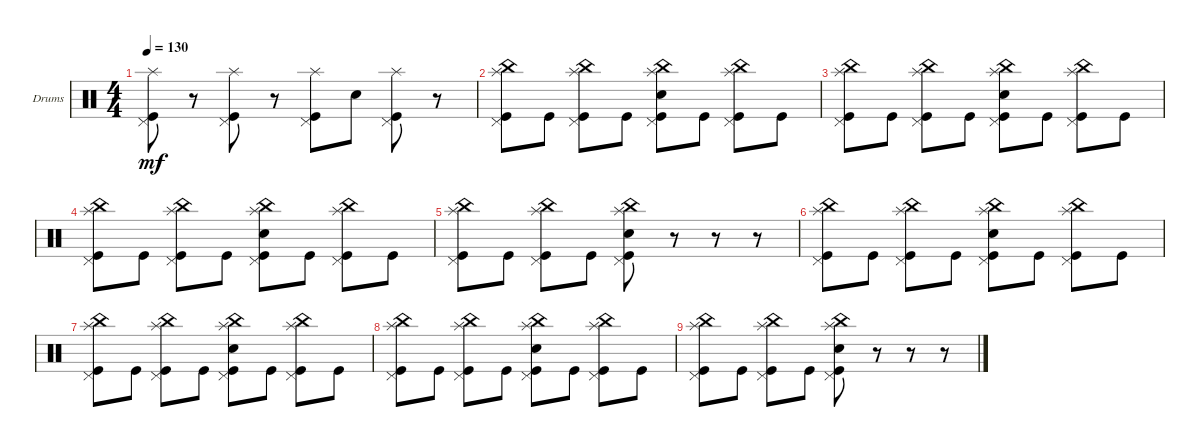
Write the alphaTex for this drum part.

\defaultSystemsLayout 4
\bracketExtendMode groupsimilarinstruments
\firstSystemTrackNameOrientation horizontal
\otherSystemsTrackNameOrientation horizontal
\track ("Drumkit" "Drums") {instrument percussion}
\staff {score}
\articulation defaults
\ts (4 4)
\tempo 130
\clef neutral
\scale
0.333333
\ks c
("Pedal Hi-Hat (hit)" "Kick (hit)" "Splash (hit)").8{dy mf} r.8 ("Pedal Hi-Hat (hit)" "Kick (hit)" "Splash (hit)").8 r.8 ("Pedal Hi-Hat (hit)" "Splash (hit)" "Kick (hit)").8 "Snare (hit) 2".8 ("Pedal Hi-Hat (hit)" "Kick (hit)" "Splash (hit)").8 r.8 |
\scale
0.333333 ("Pedal Hi-Hat (hit)" "China (hit)" "Splash (hit)" "Kick (hit)").8 "Kick (hit)".8 ("Pedal Hi-Hat (hit)" "China (hit)" "Splash (hit)" "Kick (hit)").8 "Kick (hit)".8 ("Pedal Hi-Hat (hit)" "China (hit)" "Splash (hit)" "Kick (hit)" "Snare (hit) 2").8 "Kick (hit)".8 ("Pedal Hi-Hat (hit)" "China (hit)" "Splash (hit)" "Kick (hit)").8 "Kick (hit)".8 |
\scale
0.333333 ("Pedal Hi-Hat (hit)" "China (hit)" "Splash (hit)" "Kick (hit)").8 "Kick (hit)".8 ("Pedal Hi-Hat (hit)" "China (hit)" "Splash (hit)" "Kick (hit)").8 "Kick (hit)".8 ("Pedal Hi-Hat (hit)" "China (hit)" "Splash (hit)" "Kick (hit)" "Snare (hit) 2").8 "Kick (hit)".8 ("Pedal Hi-Hat (hit)" "China (hit)" "Splash (hit)" "Kick (hit)").8 "Kick (hit)".8 |
\scale
0.333333 ("Pedal Hi-Hat (hit)" "China (hit)" "Splash (hit)" "Kick (hit)").8 "Kick (hit)".8 ("Pedal Hi-Hat (hit)" "China (hit)" "Splash (hit)" "Kick (hit)").8 "Kick (hit)".8 ("Pedal Hi-Hat (hit)" "China (hit)" "Splash (hit)" "Kick (hit)" "Snare (hit) 2").8 "Kick (hit)".8 ("Pedal Hi-Hat (hit)" "China (hit)" "Splash (hit)" "Kick (hit)").8 "Kick (hit)".8 |
\scale
0.333333 ("Pedal Hi-Hat (hit)" "China (hit)" "Splash (hit)" "Kick (hit)").8 "Kick (hit)".8 ("Pedal Hi-Hat (hit)" "China (hit)" "Splash (hit)" "Kick (hit)").8 "Kick (hit)".8 ("Pedal Hi-Hat (hit)" "China (hit)" "Splash (hit)" "Kick (hit)" "Snare (hit) 2").8 r.8 r.8 r.8 |
\scale
0.333333 ("Pedal Hi-Hat (hit)" "China (hit)" "Splash (hit)" "Kick (hit)").8 "Kick (hit)".8 ("Pedal Hi-Hat (hit)" "China (hit)" "Splash (hit)" "Kick (hit)").8 "Kick (hit)".8 ("Pedal Hi-Hat (hit)" "China (hit)" "Splash (hit)" "Kick (hit)" "Snare (hit) 2").8 "Kick (hit)".8 ("Pedal Hi-Hat (hit)" "China (hit)" "Splash (hit)" "Kick (hit)").8 "Kick (hit)".8 |
("Pedal Hi-Hat (hit)" "China (hit)" "Splash (hit)" "Kick (hit)").8 "Kick (hit)".8 ("Pedal Hi-Hat (hit)" "China (hit)" "Splash (hit)" "Kick (hit)").8 "Kick (hit)".8 ("Pedal Hi-Hat (hit)" "China (hit)" "Splash (hit)" "Kick (hit)" "Snare (hit) 2").8 "Kick (hit)".8 ("Pedal Hi-Hat (hit)" "China (hit)" "Splash (hit)" "Kick (hit)").8 "Kick (hit)".8 |
("Pedal Hi-Hat (hit)" "China (hit)" "Splash (hit)" "Kick (hit)").8 "Kick (hit)".8 ("Pedal Hi-Hat (hit)" "China (hit)" "Splash (hit)" "Kick (hit)").8 "Kick (hit)".8 ("Pedal Hi-Hat (hit)" "China (hit)" "Splash (hit)" "Kick (hit)" "Snare (hit) 2").8 "Kick (hit)".8 ("Pedal Hi-Hat (hit)" "China (hit)" "Splash (hit)" "Kick (hit)").8 "Kick (hit)".8 |
("Pedal Hi-Hat (hit)" "China (hit)" "Splash (hit)" "Kick (hit)").8 "Kick (hit)".8 ("Pedal Hi-Hat (hit)" "China (hit)" "Splash (hit)" "Kick (hit)").8 "Kick (hit)".8 ("Pedal Hi-Hat (hit)" "China (hit)" "Splash (hit)" "Kick (hit)" "Snare (hit) 2").8 r.8 r.8 r.8
